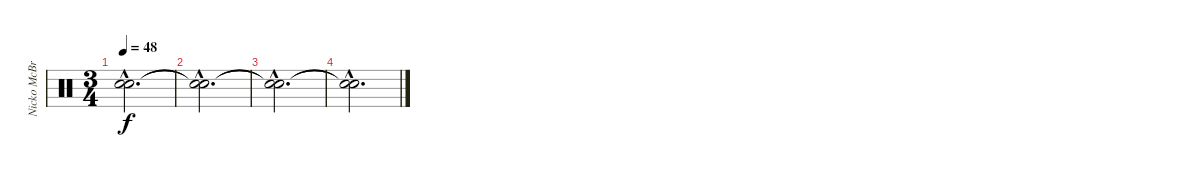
\track ("Nicko McBrain" "Nicko McBr") {instrument percussion}
\staff {score}
\articulation defaults
\ts (3 4)
\tempo 48
\clef neutral
\ks c
("Snare (hit)"{hac t} "Snare (hit)"{hac t}).2{d dy f} |
("Snare (hit)"{hac t} "Snare (hit)"{hac t}).2{d} |
("Snare (hit)"{hac t} "Snare (hit)"{hac t}).2{d} |
("Snare (hit)"{hac t} "Snare (hit)"{hac t}).2{d}
